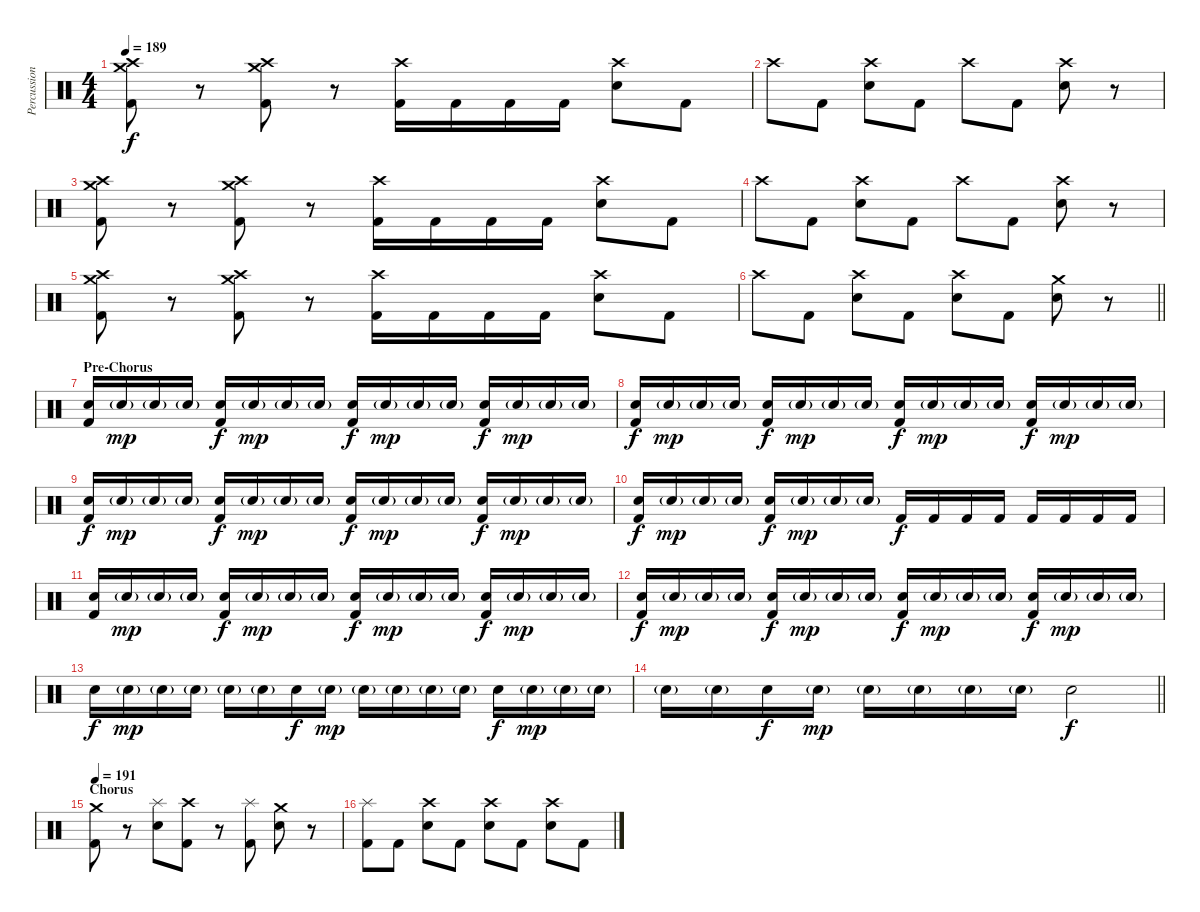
\track ("Percussion" "Percussion") {instrument percussion}
\staff {score}
\articulation defaults
\ts (4 4)
\tempo 189
\clef neutral
\ks c
("Crash medium (hit)" "Crash high (hit)" "Kick (hit) 2").8{dy f} r.8 ("Crash medium (hit)" "Crash high (hit)" "Kick (hit) 2").8 r.8 ("Crash high (hit)" "Kick (hit) 2").16 "Kick (hit) 2".16 "Kick (hit) 2".16 "Kick (hit) 2".16 ("Crash high (hit)" "Electric Snare (hit)").8 "Kick (hit) 2".8 |
"Crash high (hit)".8 "Kick (hit) 2".8 ("Crash high (hit)" "Electric Snare (hit)").8 "Kick (hit) 2".8 "Crash high (hit)".8 "Kick (hit) 2".8 ("Crash high (hit)" "Electric Snare (hit)").8 r.8 |
("Crash medium (hit)" "Crash high (hit)" "Kick (hit) 2").8 r.8 ("Crash medium (hit)" "Crash high (hit)" "Kick (hit) 2").8 r.8 ("Crash high (hit)" "Kick (hit) 2").16 "Kick (hit) 2".16 "Kick (hit) 2".16 "Kick (hit) 2".16 ("Crash high (hit)" "Electric Snare (hit)").8 "Kick (hit) 2".8 |
"Crash high (hit)".8 "Kick (hit) 2".8 ("Crash high (hit)" "Electric Snare (hit)").8 "Kick (hit) 2".8 "Crash high (hit)".8 "Kick (hit) 2".8 ("Crash high (hit)" "Electric Snare (hit)").8 r.8 |
("Crash medium (hit)" "Crash high (hit)" "Kick (hit) 2").8 r.8 ("Crash medium (hit)" "Crash high (hit)" "Kick (hit) 2").8 r.8 ("Crash high (hit)" "Kick (hit) 2").16 "Kick (hit) 2".16 "Kick (hit) 2".16 "Kick (hit) 2".16 ("Crash high (hit)" "Electric Snare (hit)").8 "Kick (hit) 2".8 |
\barLineRight lightlight "Crash high (hit)".8 "Kick (hit) 2".8
("Crash high (hit)" "Electric Snare (hit)").8 "Kick (hit) 2".8 ("Crash high (hit)" "Electric Snare (hit)").8 "Kick (hit) 2".8 ("Crash medium (hit)" "Electric Snare (hit)").8 r.8 |
\section ("" "Pre-Chorus")
("Electric Snare (hit)" "Kick (hit) 2").16 "Electric Snare (hit)"{g}.16{dy mp} "Electric Snare (hit)"{g}.16 "Electric Snare (hit)"{g}.16 ("Electric Snare (hit)" "Kick (hit) 2").16{dy f} "Electric Snare (hit)"{g}.16{dy mp} "Electric Snare (hit)"{g}.16 "Electric Snare (hit)"{g}.16 ("Electric Snare (hit)" "Kick (hit) 2").16{dy f} "Electric Snare (hit)"{g}.16{dy mp} "Electric Snare (hit)"{g}.16 "Electric Snare (hit)"{g}.16 ("Electric Snare (hit)" "Kick (hit) 2").16{dy f} "Electric Snare (hit)"{g}.16{dy mp} "Electric Snare (hit)"{g}.16 "Electric Snare (hit)"{g}.16 |
("Electric Snare (hit)" "Kick (hit) 2").16{dy f} "Electric Snare (hit)"{g}.16{dy mp} "Electric Snare (hit)"{g}.16 "Electric Snare (hit)"{g}.16 ("Electric Snare (hit)" "Kick (hit) 2").16{dy f} "Electric Snare (hit)"{g}.16{dy mp} "Electric Snare (hit)"{g}.16 "Electric Snare (hit)"{g}.16 ("Electric Snare (hit)" "Kick (hit) 2").16{dy f} "Electric Snare (hit)"{g}.16{dy mp} "Electric Snare (hit)"{g}.16 "Electric Snare (hit)"{g}.16 ("Electric Snare (hit)" "Kick (hit) 2").16{dy f} "Electric Snare (hit)"{g}.16{dy mp} "Electric Snare (hit)"{g}.16 "Electric Snare (hit)"{g}.16 |
("Electric Snare (hit)" "Kick (hit) 2").16{dy f} "Electric Snare (hit)"{g}.16{dy mp} "Electric Snare (hit)"{g}.16 "Electric Snare (hit)"{g}.16 ("Electric Snare (hit)" "Kick (hit) 2").16{dy f} "Electric Snare (hit)"{g}.16{dy mp} "Electric Snare (hit)"{g}.16 "Electric Snare (hit)"{g}.16 ("Electric Snare (hit)" "Kick (hit) 2").16{dy f} "Electric Snare (hit)"{g}.16{dy mp} "Electric Snare (hit)"{g}.16 "Electric Snare (hit)"{g}.16 ("Electric Snare (hit)" "Kick (hit) 2").16{dy f} "Electric Snare (hit)"{g}.16{dy mp} "Electric Snare (hit)"{g}.16 "Electric Snare (hit)"{g}.16 |
("Electric Snare (hit)" "Kick (hit) 2").16{dy f} "Electric Snare (hit)"{g}.16{dy mp} "Electric Snare (hit)"{g}.16 "Electric Snare (hit)"{g}.16 ("Electric Snare (hit)" "Kick (hit) 2").16{dy f} "Electric Snare (hit)"{g}.16{dy mp} "Electric Snare (hit)"{g}.16 "Electric Snare (hit)"{g}.16 "Kick (hit) 2".16{dy f} "Kick (hit) 2".16 "Kick (hit) 2".16 "Kick (hit) 2".16 "Kick (hit) 2".16 "Kick (hit) 2".16 "Kick (hit) 2".16 "Kick (hit) 2".16 |
("Electric Snare (hit)" "Kick (hit) 2").16 "Electric Snare (hit)"{g}.16{dy mp} "Electric Snare (hit)"{g}.16 "Electric Snare (hit)"{g}.16 ("Electric Snare (hit)" "Kick (hit) 2").16{dy f} "Electric Snare (hit)"{g}.16{dy mp} "Electric Snare (hit)"{g}.16 "Electric Snare (hit)"{g}.16 ("Electric Snare (hit)" "Kick (hit) 2").16{dy f} "Electric Snare (hit)"{g}.16{dy mp} "Electric Snare (hit)"{g}.16 "Electric Snare (hit)"{g}.16 ("Electric Snare (hit)" "Kick (hit) 2").16{dy f} "Electric Snare (hit)"{g}.16{dy mp} "Electric Snare (hit)"{g}.16 "Electric Snare (hit)"{g}.16 |
("Electric Snare (hit)" "Kick (hit) 2").16{dy f} "Electric Snare (hit)"{g}.16{dy mp} "Electric Snare (hit)"{g}.16 "Electric Snare (hit)"{g}.16 ("Electric Snare (hit)" "Kick (hit) 2").16{dy f} "Electric Snare (hit)"{g}.16{dy mp} "Electric Snare (hit)"{g}.16 "Electric Snare (hit)"{g}.16 ("Electric Snare (hit)" "Kick (hit) 2").16{dy f} "Electric Snare (hit)"{g}.16{dy mp} "Electric Snare (hit)"{g}.16 "Electric Snare (hit)"{g}.16 ("Electric Snare (hit)" "Kick (hit) 2").16{dy f} "Electric Snare (hit)"{g}.16{dy mp} "Electric Snare (hit)"{g}.16 "Electric Snare (hit)"{g}.16 |
"Electric Snare (hit)".16{dy f} "Electric Snare (hit)"{g}.16{dy mp} "Electric Snare (hit)"{g}.16 "Electric Snare (hit)"{g}.16 "Electric Snare (hit)"{g}.16 "Electric Snare (hit)"{g}.16 "Electric Snare (hit)".16{dy f} "Electric Snare (hit)"{g}.16{dy mp} "Electric Snare (hit)"{g}.16 "Electric Snare (hit)"{g}.16 "Electric Snare (hit)"{g}.16 "Electric Snare (hit)"{g}.16 "Electric Snare (hit)".16{dy f} "Electric Snare (hit)"{g}.16{dy mp} "Electric Snare (hit)"{g}.16 "Electric Snare (hit)"{g}.16 |
\barLineRight lightlight "Electric Snare (hit)"{g}.16 "Electric Snare (hit)"{g}.16 "Electric Snare (hit)".16{dy f} "Electric Snare (hit)"{g}.16{dy mp} "Electric Snare (hit)"{g}.16 "Electric Snare (hit)"{g}.16 "Electric Snare (hit)"{g}.16 "Electric Snare (hit)"{g}.16 "Electric Snare (hit)".2{dy f}
|
\section ("" "Chorus")
\tempo 191
("Crash medium (hit)" "Kick (hit) 2").8 r.8 ("Splash (hit)" "Electric Snare (hit)").8 ("Crash high (hit)" "Kick (hit) 2").8 r.8 ("Splash (hit)" "Kick (hit) 2").8 ("Crash medium (hit)" "Electric Snare (hit)").8 r.8 |
("Splash (hit)" "Kick (hit) 2").8 "Kick (hit) 2".8 ("Crash high (hit)" "Electric Snare (hit)").8 "Kick (hit) 2".8 ("Crash high (hit)" "Electric Snare (hit)").8 "Kick (hit) 2".8 ("Crash high (hit)" "Electric Snare (hit)").8 "Kick (hit) 2".8
